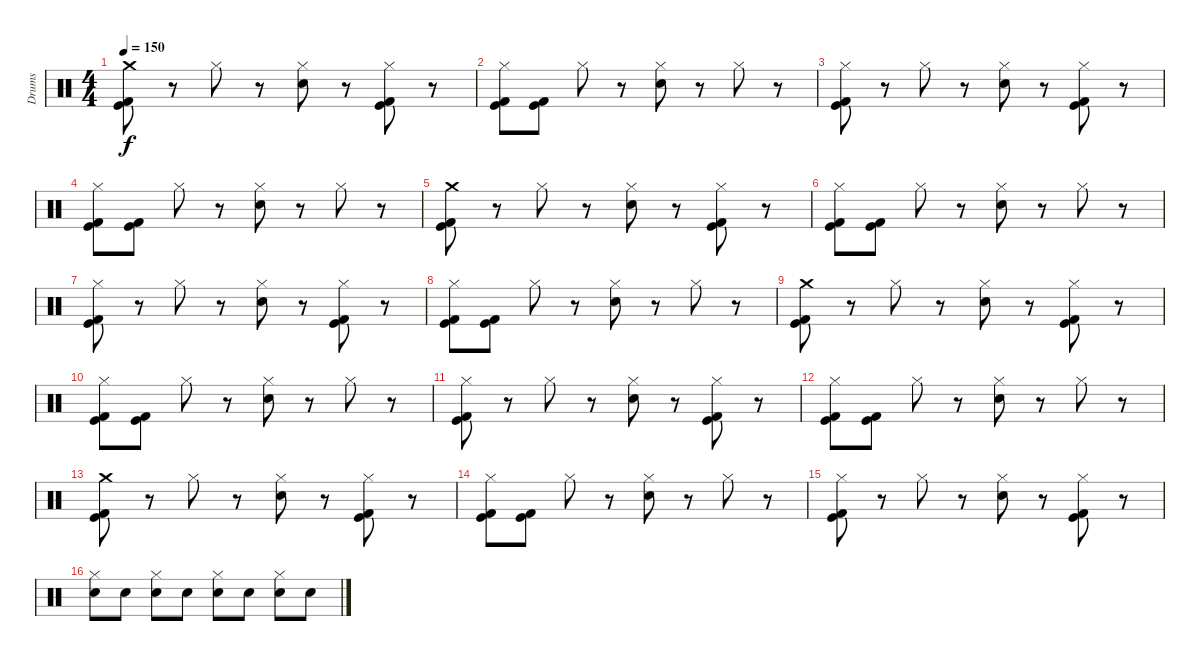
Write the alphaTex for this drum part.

\track ("Drums" "Drums") {instrument percussion}
\staff {score}
\articulation defaults
\ts (4 4)
\tempo 150
\clef neutral
\ks c
("Crash medium (hit)" "Kick (hit)" "Kick (hit) 2").8{dy f} r.8 "Hi-Hat (closed)".8 r.8 ("Hi-Hat (closed)" "Snare (hit) 2").8 r.8 ("Hi-Hat (closed)" "Kick (hit)" "Kick (hit) 2").8 r.8 |
("Hi-Hat (closed)" "Kick (hit)" "Kick (hit) 2").8 ("Kick (hit)" "Kick (hit) 2").8 "Hi-Hat (closed)".8 r.8 ("Hi-Hat (closed)" "Snare (hit) 2").8 r.8 "Hi-Hat (closed)".8 r.8 |
("Hi-Hat (closed)" "Kick (hit)" "Kick (hit) 2").8 r.8 "Hi-Hat (closed)".8 r.8 ("Hi-Hat (closed)" "Snare (hit) 2").8 r.8 ("Hi-Hat (closed)" "Kick (hit)" "Kick (hit) 2").8 r.8 |
("Hi-Hat (closed)" "Kick (hit)" "Kick (hit) 2").8 ("Kick (hit)" "Kick (hit) 2").8 "Hi-Hat (closed)".8 r.8 ("Hi-Hat (closed)" "Snare (hit) 2").8 r.8 "Hi-Hat (closed)".8 r.8 |
("Crash medium (hit)" "Kick (hit)" "Kick (hit) 2").8 r.8 "Hi-Hat (closed)".8 r.8 ("Hi-Hat (closed)" "Snare (hit) 2").8 r.8 ("Hi-Hat (closed)" "Kick (hit)" "Kick (hit) 2").8 r.8 |
("Hi-Hat (closed)" "Kick (hit)" "Kick (hit) 2").8 ("Kick (hit)" "Kick (hit) 2").8 "Hi-Hat (closed)".8 r.8 ("Hi-Hat (closed)" "Snare (hit) 2").8 r.8 "Hi-Hat (closed)".8 r.8 |
("Hi-Hat (closed)" "Kick (hit)" "Kick (hit) 2").8 r.8 "Hi-Hat (closed)".8 r.8 ("Hi-Hat (closed)" "Snare (hit) 2").8 r.8 ("Hi-Hat (closed)" "Kick (hit)" "Kick (hit) 2").8 r.8 |
("Hi-Hat (closed)" "Kick (hit)" "Kick (hit) 2").8 ("Kick (hit)" "Kick (hit) 2").8 "Hi-Hat (closed)".8 r.8 ("Hi-Hat (closed)" "Snare (hit) 2").8 r.8 "Hi-Hat (closed)".8 r.8 |
("Crash medium (hit)" "Kick (hit)" "Kick (hit) 2").8 r.8 "Hi-Hat (closed)".8 r.8 ("Hi-Hat (closed)" "Snare (hit) 2").8 r.8 ("Hi-Hat (closed)" "Kick (hit)" "Kick (hit) 2").8 r.8 |
("Hi-Hat (closed)" "Kick (hit)" "Kick (hit) 2").8 ("Kick (hit)" "Kick (hit) 2").8 "Hi-Hat (closed)".8 r.8 ("Hi-Hat (closed)" "Snare (hit) 2").8 r.8 "Hi-Hat (closed)".8 r.8 |
("Hi-Hat (closed)" "Kick (hit)" "Kick (hit) 2").8 r.8 "Hi-Hat (closed)".8 r.8 ("Hi-Hat (closed)" "Snare (hit) 2").8 r.8 ("Hi-Hat (closed)" "Kick (hit)" "Kick (hit) 2").8 r.8 |
("Hi-Hat (closed)" "Kick (hit)" "Kick (hit) 2").8 ("Kick (hit)" "Kick (hit) 2").8 "Hi-Hat (closed)".8 r.8 ("Hi-Hat (closed)" "Snare (hit) 2").8 r.8 "Hi-Hat (closed)".8 r.8 |
("Crash medium (hit)" "Kick (hit)" "Kick (hit) 2").8 r.8 "Hi-Hat (closed)".8 r.8 ("Hi-Hat (closed)" "Snare (hit) 2").8 r.8 ("Hi-Hat (closed)" "Kick (hit)" "Kick (hit) 2").8 r.8 |
("Hi-Hat (closed)" "Kick (hit)" "Kick (hit) 2").8 ("Kick (hit)" "Kick (hit) 2").8 "Hi-Hat (closed)".8 r.8 ("Hi-Hat (closed)" "Snare (hit) 2").8 r.8 "Hi-Hat (closed)".8 r.8 |
("Hi-Hat (closed)" "Kick (hit)" "Kick (hit) 2").8 r.8 "Hi-Hat (closed)".8 r.8 ("Hi-Hat (closed)" "Snare (hit) 2").8 r.8 ("Hi-Hat (closed)" "Kick (hit)" "Kick (hit) 2").8 r.8 |
("Hi-Hat (closed)" "Snare (hit) 2").8 "Snare (hit) 2".8 ("Hi-Hat (closed)" "Snare (hit) 2").8 "Snare (hit) 2".8 ("Hi-Hat (closed)" "Snare (hit) 2").8 "Snare (hit) 2".8 ("Hi-Hat (closed)" "Snare (hit) 2").8 "Snare (hit) 2".8
